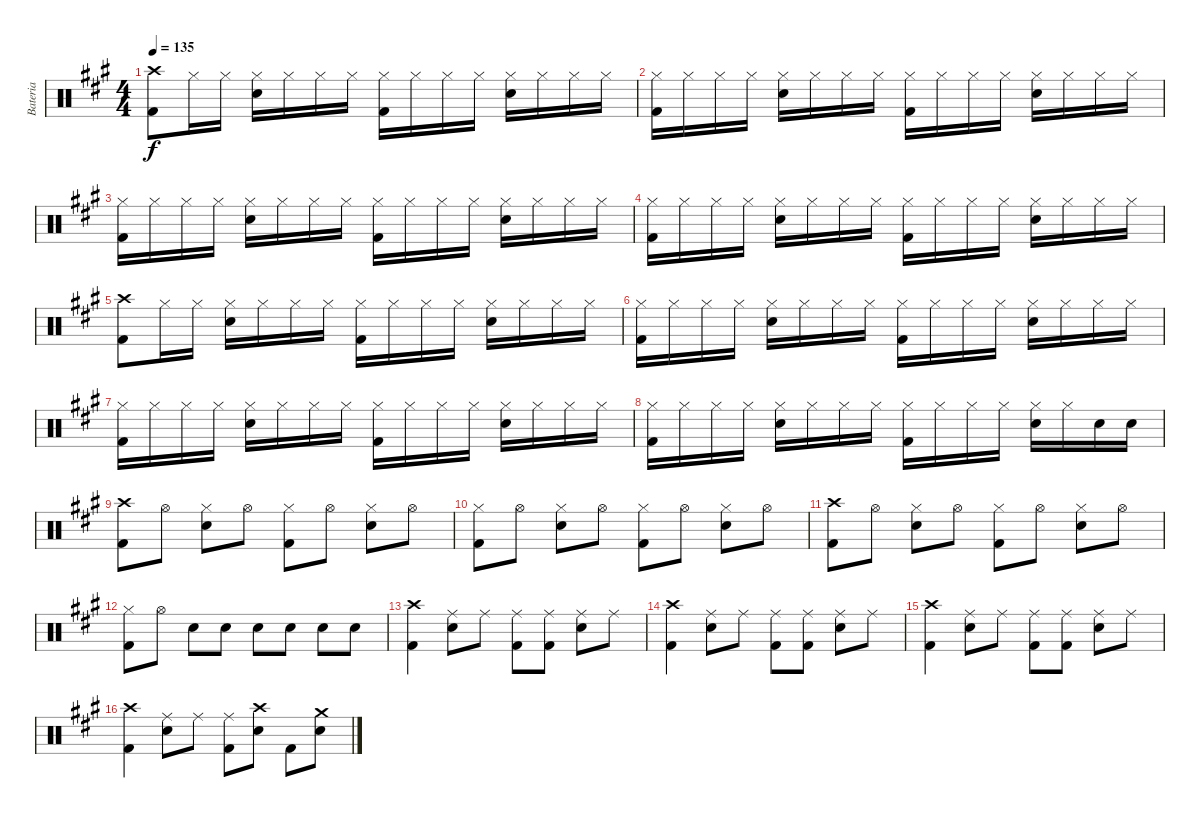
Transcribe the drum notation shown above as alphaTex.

\track ("Bateria" "Bateria") {instrument percussion}
\staff {score}
\articulation defaults
\ts (4 4)
\tempo 135
\clef neutral
\ks a
("Kick (hit) 2" "Crash high (hit)").8{dy f} "Hi-Hat (closed)".16 "Hi-Hat (closed)".16 ("Electric Snare (hit)" "Hi-Hat (closed)").16 "Hi-Hat (closed)".16 "Hi-Hat (closed)".16 "Hi-Hat (closed)".16 ("Kick (hit) 2" "Hi-Hat (closed)").16 "Hi-Hat (closed)".16 "Hi-Hat (closed)".16 "Hi-Hat (closed)".16 ("Hi-Hat (closed)" "Electric Snare (hit)").16 "Hi-Hat (closed)".16 "Hi-Hat (closed)".16 "Hi-Hat (closed)".16 |
("Hi-Hat (closed)" "Kick (hit) 2").16 "Hi-Hat (closed)".16 "Hi-Hat (closed)".16 "Hi-Hat (closed)".16 ("Electric Snare (hit)" "Hi-Hat (closed)").16 "Hi-Hat (closed)".16 "Hi-Hat (closed)".16 "Hi-Hat (closed)".16 ("Kick (hit) 2" "Hi-Hat (closed)").16 "Hi-Hat (closed)".16 "Hi-Hat (closed)".16 "Hi-Hat (closed)".16 ("Hi-Hat (closed)" "Electric Snare (hit)").16 "Hi-Hat (closed)".16 "Hi-Hat (closed)".16 "Hi-Hat (closed)".16 |
("Hi-Hat (closed)" "Kick (hit) 2").16 "Hi-Hat (closed)".16 "Hi-Hat (closed)".16 "Hi-Hat (closed)".16 ("Electric Snare (hit)" "Hi-Hat (closed)").16 "Hi-Hat (closed)".16 "Hi-Hat (closed)".16 "Hi-Hat (closed)".16 ("Kick (hit) 2" "Hi-Hat (closed)").16 "Hi-Hat (closed)".16 "Hi-Hat (closed)".16 "Hi-Hat (closed)".16 ("Hi-Hat (closed)" "Electric Snare (hit)").16 "Hi-Hat (closed)".16 "Hi-Hat (closed)".16 "Hi-Hat (closed)".16 |
("Hi-Hat (closed)" "Kick (hit) 2").16 "Hi-Hat (closed)".16 "Hi-Hat (closed)".16 "Hi-Hat (closed)".16 ("Electric Snare (hit)" "Hi-Hat (closed)").16 "Hi-Hat (closed)".16 "Hi-Hat (closed)".16 "Hi-Hat (closed)".16 ("Kick (hit) 2" "Hi-Hat (closed)").16 "Hi-Hat (closed)".16 "Hi-Hat (closed)".16 "Hi-Hat (closed)".16 ("Hi-Hat (closed)" "Electric Snare (hit)").16 "Hi-Hat (closed)".16 "Hi-Hat (closed)".16 "Hi-Hat (closed)".16 |
("Kick (hit) 2" "Crash high (hit)").8 "Hi-Hat (closed)".16 "Hi-Hat (closed)".16 ("Electric Snare (hit)" "Hi-Hat (closed)").16 "Hi-Hat (closed)".16 "Hi-Hat (closed)".16 "Hi-Hat (closed)".16 ("Kick (hit) 2" "Hi-Hat (closed)").16 "Hi-Hat (closed)".16 "Hi-Hat (closed)".16 "Hi-Hat (closed)".16 ("Hi-Hat (closed)" "Electric Snare (hit)").16 "Hi-Hat (closed)".16 "Hi-Hat (closed)".16 "Hi-Hat (closed)".16 |
("Hi-Hat (closed)" "Kick (hit) 2").16 "Hi-Hat (closed)".16 "Hi-Hat (closed)".16 "Hi-Hat (closed)".16 ("Electric Snare (hit)" "Hi-Hat (closed)").16 "Hi-Hat (closed)".16 "Hi-Hat (closed)".16 "Hi-Hat (closed)".16 ("Kick (hit) 2" "Hi-Hat (closed)").16 "Hi-Hat (closed)".16 "Hi-Hat (closed)".16 "Hi-Hat (closed)".16 ("Hi-Hat (closed)" "Electric Snare (hit)").16 "Hi-Hat (closed)".16 "Hi-Hat (closed)".16 "Hi-Hat (closed)".16 |
("Hi-Hat (closed)" "Kick (hit) 2").16 "Hi-Hat (closed)".16 "Hi-Hat (closed)".16 "Hi-Hat (closed)".16 ("Electric Snare (hit)" "Hi-Hat (closed)").16 "Hi-Hat (closed)".16 "Hi-Hat (closed)".16 "Hi-Hat (closed)".16 ("Kick (hit) 2" "Hi-Hat (closed)").16 "Hi-Hat (closed)".16 "Hi-Hat (closed)".16 "Hi-Hat (closed)".16 ("Hi-Hat (closed)" "Electric Snare (hit)").16 "Hi-Hat (closed)".16 "Hi-Hat (closed)".16 "Hi-Hat (closed)".16 |
("Hi-Hat (closed)" "Kick (hit) 2").16 "Hi-Hat (closed)".16 "Hi-Hat (closed)".16 "Hi-Hat (closed)".16 ("Electric Snare (hit)" "Hi-Hat (closed)").16 "Hi-Hat (closed)".16 "Hi-Hat (closed)".16 "Hi-Hat (closed)".16 ("Kick (hit) 2" "Hi-Hat (closed)").16 "Hi-Hat (closed)".16 "Hi-Hat (closed)".16 "Hi-Hat (closed)".16 ("Hi-Hat (closed)" "Electric Snare (hit)").16 "Hi-Hat (closed)".16 "Electric Snare (hit)".16 "Electric Snare (hit)".16 |
("Kick (hit) 2" "Crash high (hit)").8 "Hi-Hat (open)".8 ("Electric Snare (hit)" "Hi-Hat (closed)").8 "Hi-Hat (open)".8 ("Kick (hit) 2" "Hi-Hat (closed)").8 "Hi-Hat (open)".8 ("Electric Snare (hit)" "Hi-Hat (closed)").8 "Hi-Hat (open)".8 |
("Kick (hit) 2" "Hi-Hat (closed)").8 "Hi-Hat (open)".8 ("Electric Snare (hit)" "Hi-Hat (closed)").8 "Hi-Hat (open)".8 ("Kick (hit) 2" "Hi-Hat (closed)").8 "Hi-Hat (open)".8 ("Electric Snare (hit)" "Hi-Hat (closed)").8 "Hi-Hat (open)".8 |
("Kick (hit) 2" "Crash high (hit)").8 "Hi-Hat (open)".8 ("Electric Snare (hit)" "Hi-Hat (closed)").8 "Hi-Hat (open)".8 ("Kick (hit) 2" "Hi-Hat (closed)").8 "Hi-Hat (open)".8 ("Electric Snare (hit)" "Hi-Hat (closed)").8 "Hi-Hat (open)".8 |
("Kick (hit) 2" "Hi-Hat (closed)").8 "Hi-Hat (open)".8 "Electric Snare (hit)".8 "Electric Snare (hit)".8 "Electric Snare (hit)".8 "Electric Snare (hit)".8 "Electric Snare (hit)".8 "Electric Snare (hit)".8 |
("Kick (hit) 2" "Crash high (hit)").4 ("Electric Snare (hit)" "Ride (middle)").8 "Ride (middle)".8 ("Ride (middle)" "Kick (hit) 2").8 ("Ride (middle)" "Kick (hit) 2").8 ("Ride (middle)" "Electric Snare (hit)").8 "Ride (middle)".8 |
("Kick (hit) 2" "Crash high (hit)").4 ("Electric Snare (hit)" "Ride (middle)").8 "Ride (middle)".8 ("Ride (middle)" "Kick (hit) 2").8 ("Ride (middle)" "Kick (hit) 2").8 ("Ride (middle)" "Electric Snare (hit)").8 "Ride (middle)".8 |
("Kick (hit) 2" "Crash high (hit)").4 ("Electric Snare (hit)" "Ride (middle)").8 "Ride (middle)".8 ("Ride (middle)" "Kick (hit) 2").8 ("Ride (middle)" "Kick (hit) 2").8 ("Ride (middle)" "Electric Snare (hit)").8 "Ride (middle)".8 |
("Kick (hit) 2" "Crash high (hit)").4 ("Electric Snare (hit)" "Ride (middle)").8 "Ride (middle)".8 ("Ride (middle)" "Kick (hit) 2").8 ("Electric Snare (hit)" "Crash high (hit)").8 "Kick (hit) 2".8 ("Electric Snare (hit)" "Crash medium (hit)").8
